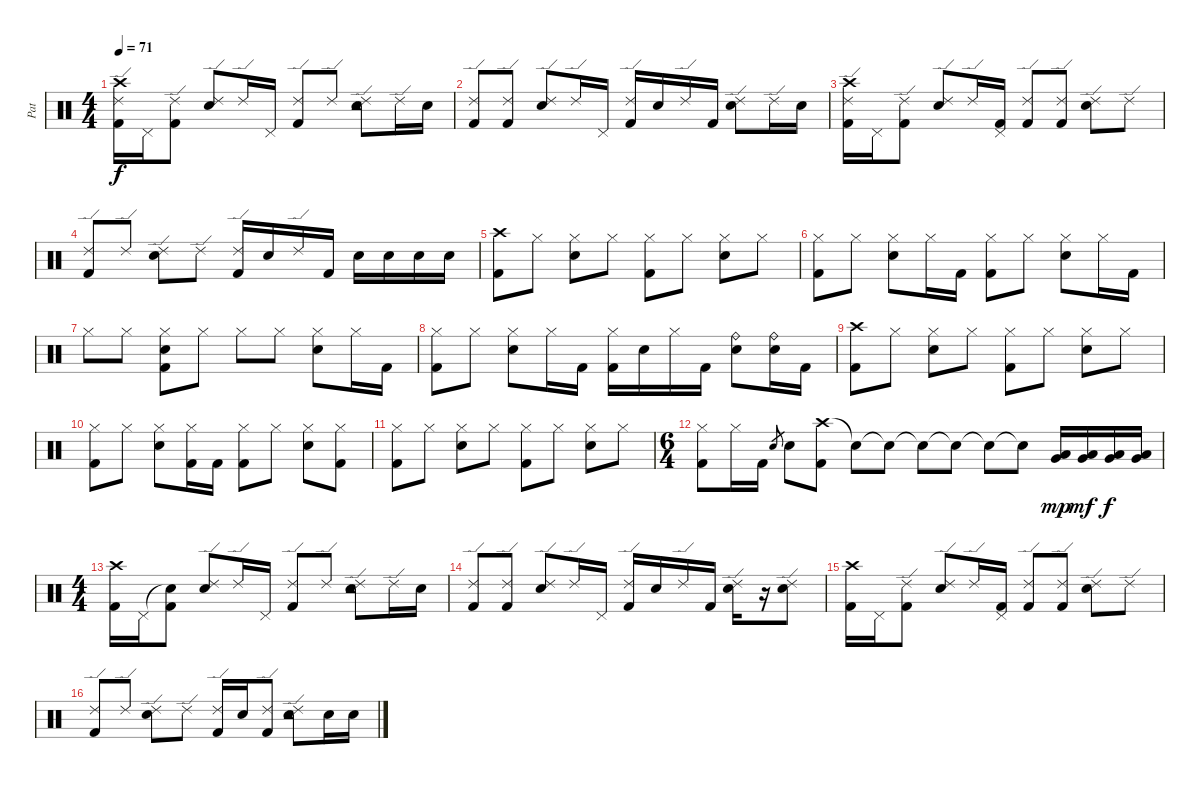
\track ("Pat" "Pat") {instrument percussion}
\staff {score}
\articulation defaults
\ts (4 4)
\tempo 71
\clef neutral
\ks c
("Crash high (hit)" "Ride (edge) 2" "Kick (hit) 2").16{dy f} "Pedal Hi-Hat (hit)".16 ("Ride (edge) 2" "Kick (hit) 2").8 ("Ride (edge) 2" "Snare (hit) 2").8 "Ride (edge) 2".16 "Pedal Hi-Hat (hit)".16 ("Ride (edge) 2" "Kick (hit) 2").8 "Ride (edge) 2".8 ("Tambourine (hit)" "Ride (edge) 2" "Snare (hit) 2").8 "Ride (edge) 2".16 "Snare (hit) 2".16 |
("Ride (edge) 2" "Kick (hit) 2").8 ("Ride (edge) 2" "Kick (hit) 2").8 ("Ride (edge) 2" "Snare (hit) 2").8 "Ride (edge) 2".16 "Pedal Hi-Hat (hit)".16 ("Ride (edge) 2" "Kick (hit) 2").16 "Snare (hit) 2".16 "Ride (edge) 2".16 "Kick (hit) 2".16 ("Ride (edge) 2" "Snare (hit) 2").8 "Ride (edge) 2".16 "Snare (hit) 2".16 |
("Crash high (hit)" "Ride (edge) 2" "Kick (hit) 2").16 "Pedal Hi-Hat (hit)".16 ("Ride (edge) 2" "Kick (hit) 2").8 ("Ride (edge) 2" "Snare (hit) 2").8 "Ride (edge) 2".16 ("Pedal Hi-Hat (hit)" "Kick (hit) 2").16 ("Ride (edge) 2" "Kick (hit) 2").8 ("Ride (edge) 2" "Kick (hit) 2").8 ("Ride (edge) 2" "Snare (hit) 2").8 "Ride (edge) 2".8 |
("Ride (edge) 2" "Kick (hit) 2").8 "Ride (edge) 2".8 ("Ride (edge) 2" "Snare (hit) 2").8 "Ride (edge) 2".8 ("Ride (edge) 2" "Kick (hit) 2").16 "Snare (hit) 2".16 "Ride (edge) 2".16 "Kick (hit) 2".16 "Snare (hit) 2".16 "Snare (hit) 2".16 "Snare (hit) 2".16 "Snare (hit) 2".16 |
("Crash high (hit)" "Kick (hit) 2").8 "Hi-Hat (closed)".8 ("Hi-Hat (closed)" "Snare (hit) 2").8 "Hi-Hat (closed)".8 ("Hi-Hat (closed)" "Kick (hit) 2").8 "Hi-Hat (closed)".8 ("Hi-Hat (closed)" "Snare (hit) 2").8 "Hi-Hat (closed)".8 |
("Hi-Hat (closed)" "Kick (hit) 2").8 "Hi-Hat (closed)".8 ("Hi-Hat (closed)" "Snare (hit) 2").8 "Hi-Hat (closed)".16 "Kick (hit) 2".16 ("Hi-Hat (closed)" "Kick (hit) 2").8 "Hi-Hat (closed)".8 ("Hi-Hat (closed)" "Snare (hit) 2").8 "Hi-Hat (closed)".16 "Kick (hit) 2".16 |
"Hi-Hat (closed)".8 "Hi-Hat (closed)".8 ("Hi-Hat (closed)" "Snare (hit) 2" "Kick (hit) 2").8 "Hi-Hat (closed)".8 "Hi-Hat (closed)".8 "Hi-Hat (closed)".8 ("Hi-Hat (closed)" "Snare (hit) 2").8 "Hi-Hat (closed)".16 "Kick (hit) 2".16 |
("Hi-Hat (closed)" "Kick (hit) 2").8 "Hi-Hat (closed)".8 ("Hi-Hat (closed)" "Snare (hit) 2").8 "Hi-Hat (closed)".16 "Kick (hit) 2".16 ("Hi-Hat (closed)" "Kick (hit) 2").16 "Snare (hit) 2".16 "Hi-Hat (closed)".16 "Kick (hit) 2".16 ("Ride (bell)" "Snare (hit) 2").8 ("Ride (bell)" "Snare (hit) 2").16 "Kick (hit) 2".16 |
("Crash high (hit)" "Kick (hit) 2").8 "Hi-Hat (closed)".8 ("Hi-Hat (closed)" "Snare (hit) 2").8 "Hi-Hat (closed)".8 ("Hi-Hat (closed)" "Kick (hit) 2").8 "Hi-Hat (closed)".8 ("Hi-Hat (closed)" "Snare (hit) 2").8 "Hi-Hat (closed)".8 |
("Hi-Hat (closed)" "Kick (hit) 2").8 "Hi-Hat (closed)".8 ("Hi-Hat (closed)" "Snare (hit) 2").8 ("Hi-Hat (closed)" "Kick (hit) 2").16 "Kick (hit) 2".16 ("Hi-Hat (closed)" "Kick (hit) 2").8 "Hi-Hat (closed)".8 ("Hi-Hat (closed)" "Snare (hit) 2").8 ("Hi-Hat (closed)" "Kick (hit) 2").8 |
("Hi-Hat (closed)" "Kick (hit) 2").8 "Hi-Hat (closed)".8 ("Hi-Hat (closed)" "Snare (hit) 2").8 "Hi-Hat (closed)".8 ("Hi-Hat (closed)" "Kick (hit) 2").8 "Hi-Hat (closed)".8 ("Hi-Hat (closed)" "Snare (hit) 2").8 "Hi-Hat (closed)".8 |
\ts (6 4)
("Hi-Hat (closed)" "Kick (hit) 2").8 "Hi-Hat (closed)".16 "Kick (hit) 2".16 "Snare (hit) 2".8{gr} "Snare (hit) 2".8 ("Crash high (hit)" "Kick (hit) 2").8 "Snare (hit)"{t}.8 "Snare (hit)"{t}.8 "Snare (hit)"{t}.8 "Snare (hit)"{t}.8 "Snare (hit)"{t}.8 "Snare (hit)"{t}.8 ("Low Tom (hit)" "Very Low Tom (hit)").16{dy mp} ("Low Tom (hit)" "Very Low Tom (hit)").16{dy mf} ("Low Tom (hit)" "Very Low Tom (hit)").16{dy f} ("Low Tom (hit)" "Very Low Tom (hit)").16 |
\ts (4 4)
("Crash high (hit)" "Kick (hit) 2").16 "Pedal Hi-Hat (hit)".16 ("Snare (hit)"{t} "Kick (hit) 2").8 ("Ride (edge) 2" "Snare (hit) 2").8 "Ride (edge) 2".16 "Pedal Hi-Hat (hit)".16 ("Ride (edge) 2" "Kick (hit) 2").8 "Ride (edge) 2".8 ("Tambourine (hit)" "Ride (edge) 2" "Snare (hit) 2").8 "Ride (edge) 2".16 "Snare (hit) 2".16 |
("Ride (edge) 2" "Kick (hit) 2").8 ("Ride (edge) 2" "Kick (hit) 2").8 ("Ride (edge) 2" "Snare (hit) 2").8 "Ride (edge) 2".16 "Pedal Hi-Hat (hit)".16 ("Ride (edge) 2" "Kick (hit) 2").16 "Snare (hit) 2".16 "Ride (edge) 2".16 "Kick (hit) 2".16 ("Ride (edge) 2" "Snare (hit) 2").16 r.16 ("Ride (edge) 2" "Snare (hit) 2").8 |
("Crash high (hit)" "Kick (hit) 2").16 "Pedal Hi-Hat (hit)".16 ("Ride (edge) 2" "Kick (hit) 2").8 ("Ride (edge) 2" "Snare (hit) 2").8 "Ride (edge) 2".16 ("Pedal Hi-Hat (hit)" "Kick (hit) 2").16 ("Ride (edge) 2" "Kick (hit) 2").8 ("Ride (edge) 2" "Kick (hit) 2").8 ("Ride (edge) 2" "Snare (hit) 2").8 "Ride (edge) 2".8 |
("Ride (edge) 2" "Kick (hit) 2").8 "Ride (edge) 2".8 ("Ride (edge) 2" "Snare (hit) 2").8 "Ride (edge) 2".8 ("Ride (edge) 2" "Kick (hit) 2").16 "Snare (hit) 2".16 ("Ride (edge) 2" "Kick (hit) 2").8 ("Tambourine (hit)" "Ride (edge) 2" "Snare (hit) 2").8 "Snare (hit) 2".16 "Snare (hit) 2".16
